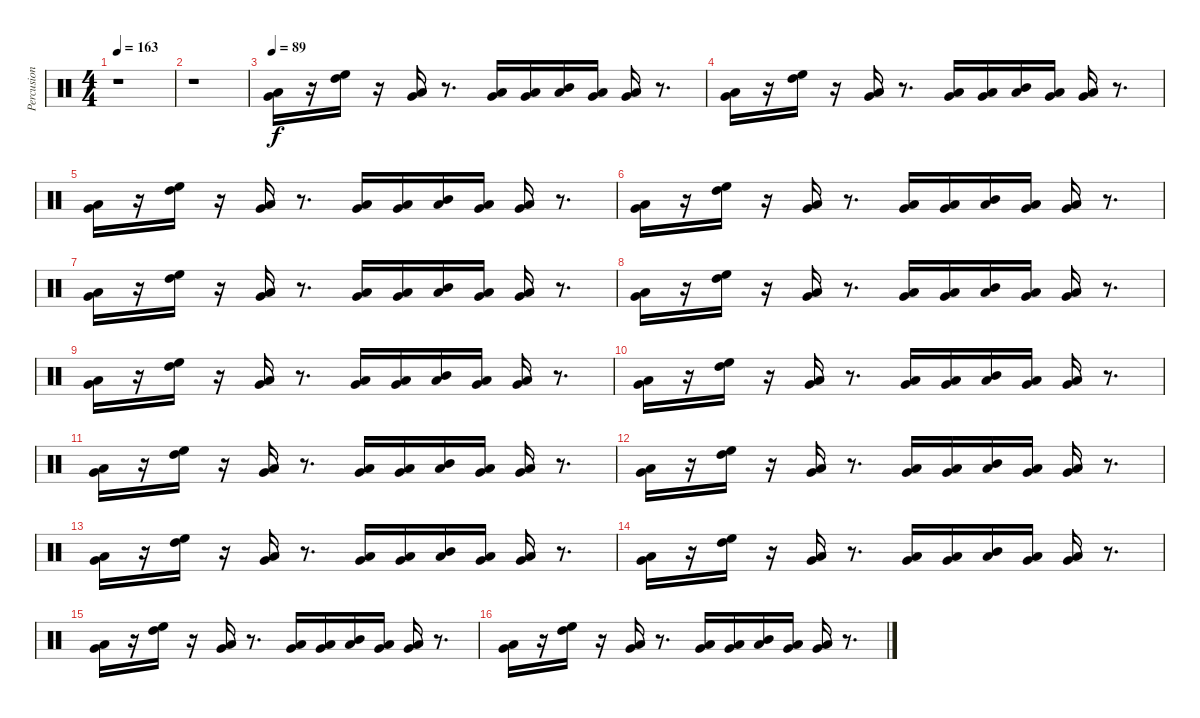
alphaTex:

\track ("Percusion" "Percusion") {instrument percussion}
\staff {score}
\articulation defaults
\ts (4 4)
\tempo 163
\clef neutral
\ks c
r.1{dy f} |
r.1 |
\tempo 89
("Very Low Tom (hit)" "Low Floor Tom (hit)").16 r.16 ("High Floor Tom (hit)" "High Tom (hit)").16 r.16 ("Very Low Tom (hit)" "Low Floor Tom (hit)").16 r.8{d} ("Very Low Tom (hit)" "Low Floor Tom (hit)").16 ("Very Low Tom (hit)" "Low Floor Tom (hit)").16 ("Mid Tom (hit)" "Low Floor Tom (hit)").16 ("Very Low Tom (hit)" "Low Floor Tom (hit)").16 ("Very Low Tom (hit)" "Low Floor Tom (hit)").16 r.8{d} |
("Very Low Tom (hit)" "Low Floor Tom (hit)").16 r.16 ("High Floor Tom (hit)" "High Tom (hit)").16 r.16 ("Very Low Tom (hit)" "Low Floor Tom (hit)").16 r.8{d} ("Very Low Tom (hit)" "Low Floor Tom (hit)").16 ("Very Low Tom (hit)" "Low Floor Tom (hit)").16 ("Mid Tom (hit)" "Low Floor Tom (hit)").16 ("Very Low Tom (hit)" "Low Floor Tom (hit)").16 ("Very Low Tom (hit)" "Low Floor Tom (hit)").16 r.8{d} |
("Very Low Tom (hit)" "Low Floor Tom (hit)").16 r.16 ("High Floor Tom (hit)" "High Tom (hit)").16 r.16 ("Very Low Tom (hit)" "Low Floor Tom (hit)").16 r.8{d} ("Very Low Tom (hit)" "Low Floor Tom (hit)").16 ("Very Low Tom (hit)" "Low Floor Tom (hit)").16 ("Mid Tom (hit)" "Low Floor Tom (hit)").16 ("Very Low Tom (hit)" "Low Floor Tom (hit)").16 ("Very Low Tom (hit)" "Low Floor Tom (hit)").16 r.8{d} |
("Very Low Tom (hit)" "Low Floor Tom (hit)").16 r.16 ("High Floor Tom (hit)" "High Tom (hit)").16 r.16 ("Very Low Tom (hit)" "Low Floor Tom (hit)").16 r.8{d} ("Very Low Tom (hit)" "Low Floor Tom (hit)").16 ("Very Low Tom (hit)" "Low Floor Tom (hit)").16 ("Mid Tom (hit)" "Low Floor Tom (hit)").16 ("Very Low Tom (hit)" "Low Floor Tom (hit)").16 ("Very Low Tom (hit)" "Low Floor Tom (hit)").16 r.8{d} |
("Very Low Tom (hit)" "Low Floor Tom (hit)").16 r.16 ("High Floor Tom (hit)" "High Tom (hit)").16 r.16 ("Very Low Tom (hit)" "Low Floor Tom (hit)").16 r.8{d} ("Very Low Tom (hit)" "Low Floor Tom (hit)").16 ("Very Low Tom (hit)" "Low Floor Tom (hit)").16 ("Mid Tom (hit)" "Low Floor Tom (hit)").16 ("Very Low Tom (hit)" "Low Floor Tom (hit)").16 ("Very Low Tom (hit)" "Low Floor Tom (hit)").16 r.8{d} |
("Very Low Tom (hit)" "Low Floor Tom (hit)").16 r.16 ("High Floor Tom (hit)" "High Tom (hit)").16 r.16 ("Very Low Tom (hit)" "Low Floor Tom (hit)").16 r.8{d} ("Very Low Tom (hit)" "Low Floor Tom (hit)").16 ("Very Low Tom (hit)" "Low Floor Tom (hit)").16 ("Mid Tom (hit)" "Low Floor Tom (hit)").16 ("Very Low Tom (hit)" "Low Floor Tom (hit)").16 ("Very Low Tom (hit)" "Low Floor Tom (hit)").16 r.8{d} |
("Very Low Tom (hit)" "Low Floor Tom (hit)").16 r.16 ("High Floor Tom (hit)" "High Tom (hit)").16 r.16 ("Very Low Tom (hit)" "Low Floor Tom (hit)").16 r.8{d} ("Very Low Tom (hit)" "Low Floor Tom (hit)").16 ("Very Low Tom (hit)" "Low Floor Tom (hit)").16 ("Mid Tom (hit)" "Low Floor Tom (hit)").16 ("Very Low Tom (hit)" "Low Floor Tom (hit)").16 ("Very Low Tom (hit)" "Low Floor Tom (hit)").16 r.8{d} |
("Very Low Tom (hit)" "Low Floor Tom (hit)").16 r.16 ("High Floor Tom (hit)" "High Tom (hit)").16 r.16 ("Very Low Tom (hit)" "Low Floor Tom (hit)").16 r.8{d} ("Very Low Tom (hit)" "Low Floor Tom (hit)").16 ("Very Low Tom (hit)" "Low Floor Tom (hit)").16 ("Mid Tom (hit)" "Low Floor Tom (hit)").16 ("Very Low Tom (hit)" "Low Floor Tom (hit)").16 ("Very Low Tom (hit)" "Low Floor Tom (hit)").16 r.8{d} |
("Very Low Tom (hit)" "Low Floor Tom (hit)").16 r.16 ("High Floor Tom (hit)" "High Tom (hit)").16 r.16 ("Very Low Tom (hit)" "Low Floor Tom (hit)").16 r.8{d} ("Very Low Tom (hit)" "Low Floor Tom (hit)").16 ("Very Low Tom (hit)" "Low Floor Tom (hit)").16 ("Mid Tom (hit)" "Low Floor Tom (hit)").16 ("Very Low Tom (hit)" "Low Floor Tom (hit)").16 ("Very Low Tom (hit)" "Low Floor Tom (hit)").16 r.8{d} |
("Very Low Tom (hit)" "Low Floor Tom (hit)").16 r.16 ("High Floor Tom (hit)" "High Tom (hit)").16 r.16 ("Very Low Tom (hit)" "Low Floor Tom (hit)").16 r.8{d} ("Very Low Tom (hit)" "Low Floor Tom (hit)").16 ("Very Low Tom (hit)" "Low Floor Tom (hit)").16 ("Mid Tom (hit)" "Low Floor Tom (hit)").16 ("Very Low Tom (hit)" "Low Floor Tom (hit)").16 ("Very Low Tom (hit)" "Low Floor Tom (hit)").16 r.8{d} |
("Very Low Tom (hit)" "Low Floor Tom (hit)").16 r.16 ("High Floor Tom (hit)" "High Tom (hit)").16 r.16 ("Very Low Tom (hit)" "Low Floor Tom (hit)").16 r.8{d} ("Very Low Tom (hit)" "Low Floor Tom (hit)").16 ("Very Low Tom (hit)" "Low Floor Tom (hit)").16 ("Mid Tom (hit)" "Low Floor Tom (hit)").16 ("Very Low Tom (hit)" "Low Floor Tom (hit)").16 ("Very Low Tom (hit)" "Low Floor Tom (hit)").16 r.8{d} |
("Very Low Tom (hit)" "Low Floor Tom (hit)").16 r.16 ("High Floor Tom (hit)" "High Tom (hit)").16 r.16 ("Very Low Tom (hit)" "Low Floor Tom (hit)").16 r.8{d} ("Very Low Tom (hit)" "Low Floor Tom (hit)").16 ("Very Low Tom (hit)" "Low Floor Tom (hit)").16 ("Mid Tom (hit)" "Low Floor Tom (hit)").16 ("Very Low Tom (hit)" "Low Floor Tom (hit)").16 ("Very Low Tom (hit)" "Low Floor Tom (hit)").16 r.8{d} |
("Very Low Tom (hit)" "Low Floor Tom (hit)").16 r.16 ("High Floor Tom (hit)" "High Tom (hit)").16 r.16 ("Very Low Tom (hit)" "Low Floor Tom (hit)").16 r.8{d} ("Very Low Tom (hit)" "Low Floor Tom (hit)").16 ("Very Low Tom (hit)" "Low Floor Tom (hit)").16 ("Mid Tom (hit)" "Low Floor Tom (hit)").16 ("Very Low Tom (hit)" "Low Floor Tom (hit)").16 ("Very Low Tom (hit)" "Low Floor Tom (hit)").16 r.8{d} |
("Very Low Tom (hit)" "Low Floor Tom (hit)").16 r.16 ("High Floor Tom (hit)" "High Tom (hit)").16 r.16 ("Very Low Tom (hit)" "Low Floor Tom (hit)").16 r.8{d} ("Very Low Tom (hit)" "Low Floor Tom (hit)").16 ("Very Low Tom (hit)" "Low Floor Tom (hit)").16 ("Mid Tom (hit)" "Low Floor Tom (hit)").16 ("Very Low Tom (hit)" "Low Floor Tom (hit)").16 ("Very Low Tom (hit)" "Low Floor Tom (hit)").16 r.8{d}
